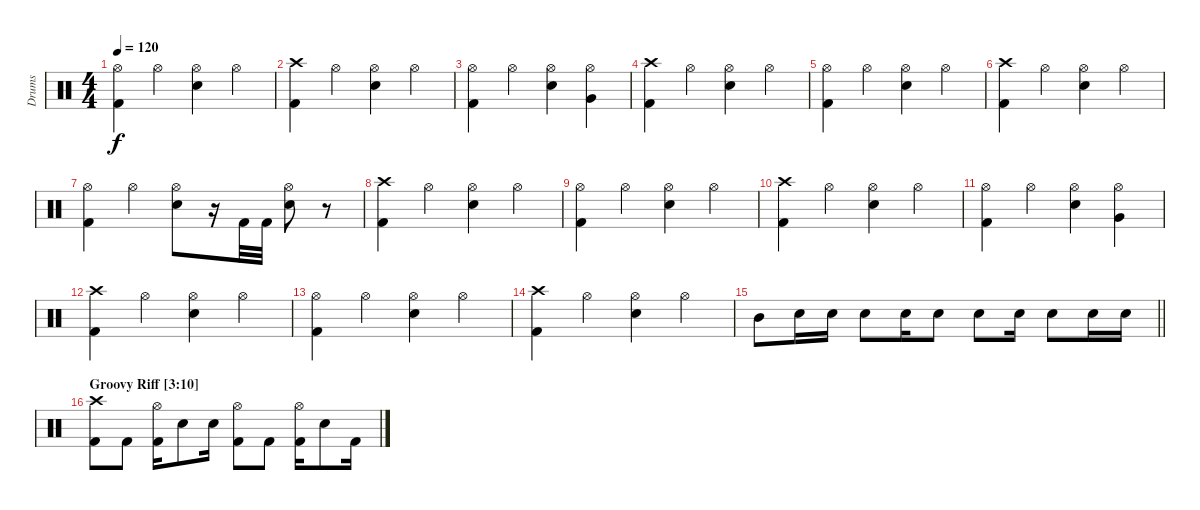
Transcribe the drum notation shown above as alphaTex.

\track ("Drums" "Drums") {instrument percussion}
\staff {score}
\articulation defaults
\ts (4 4)
\tempo 120
\clef neutral
\ks c
("Hi-Hat (open)" "Kick (hit) 2").4{dy f} "Hi-Hat (open)".4 ("Hi-Hat (open)" "Snare (hit) 2").4 "Hi-Hat (open)".4 |
("Crash high (hit)" "Kick (hit) 2").4 "Hi-Hat (open)".4 ("Hi-Hat (open)" "Snare (hit) 2").4 "Hi-Hat (open)".4 |
("Hi-Hat (open)" "Kick (hit) 2").4 "Hi-Hat (open)".4 ("Hi-Hat (open)" "Snare (hit) 2").4 ("Hi-Hat (open)" "Very Low Tom (hit)").4 |
("Crash high (hit)" "Kick (hit) 2").4 "Hi-Hat (open)".4 ("Hi-Hat (open)" "Snare (hit) 2").4 "Hi-Hat (open)".4 |
("Hi-Hat (open)" "Kick (hit) 2").4 "Hi-Hat (open)".4 ("Hi-Hat (open)" "Snare (hit) 2").4 "Hi-Hat (open)".4 |
("Crash high (hit)" "Kick (hit) 2").4 "Hi-Hat (open)".4 ("Hi-Hat (open)" "Snare (hit) 2").4 "Hi-Hat (open)".4 |
("Hi-Hat (open)" "Kick (hit) 2").4 "Hi-Hat (open)".4 ("Hi-Hat (open)" "Snare (hit) 2").8 r.16 "Kick (hit) 2".32 "Kick (hit) 2".32 ("Hi-Hat (open)" "Snare (hit) 2").8 r.8 |
("Crash high (hit)" "Kick (hit) 2").4 "Hi-Hat (open)".4 ("Hi-Hat (open)" "Snare (hit) 2").4 "Hi-Hat (open)".4 |
("Hi-Hat (open)" "Kick (hit) 2").4 "Hi-Hat (open)".4 ("Hi-Hat (open)" "Snare (hit) 2").4 "Hi-Hat (open)".4 |
("Crash high (hit)" "Kick (hit) 2").4 "Hi-Hat (open)".4 ("Hi-Hat (open)" "Snare (hit) 2").4 "Hi-Hat (open)".4 |
("Hi-Hat (open)" "Kick (hit) 2").4 "Hi-Hat (open)".4 ("Hi-Hat (open)" "Snare (hit) 2").4 ("Hi-Hat (open)" "Very Low Tom (hit)").4 |
("Crash high (hit)" "Kick (hit) 2").4 "Hi-Hat (open)".4 ("Hi-Hat (open)" "Snare (hit) 2").4 "Hi-Hat (open)".4 |
("Hi-Hat (open)" "Kick (hit) 2").4 "Hi-Hat (open)".4 ("Hi-Hat (open)" "Snare (hit) 2").4 "Hi-Hat (open)".4 |
("Crash high (hit)" "Kick (hit) 2").4 "Hi-Hat (open)".4 ("Hi-Hat (open)" "Snare (hit) 2").4 "Hi-Hat (open)".4 |
\barLineRight lightlight "Mid Tom (hit)".8 "Snare (hit) 2".16 "Snare (hit) 2".16 "Snare (hit) 2".8 "Snare (hit) 2".16 "Snare (hit) 2".8 "Snare (hit) 2".8 "Snare (hit) 2".16 "Snare (hit) 2".8 "Snare (hit) 2".16 "Snare (hit) 2".16
|
\section ("" "Groovy Riff [3:10]")
("Crash high (hit)" "Kick (hit) 2").8 "Kick (hit) 2".8 ("Hi-Hat (open)" "Kick (hit) 2").16 "Snare (hit) 2".8 "Snare (hit) 2".16 ("Hi-Hat (open)" "Kick (hit) 2").8 "Kick (hit) 2".8 ("Hi-Hat (open)" "Kick (hit) 2").16 "Snare (hit) 2".8 "Kick (hit) 2".16
